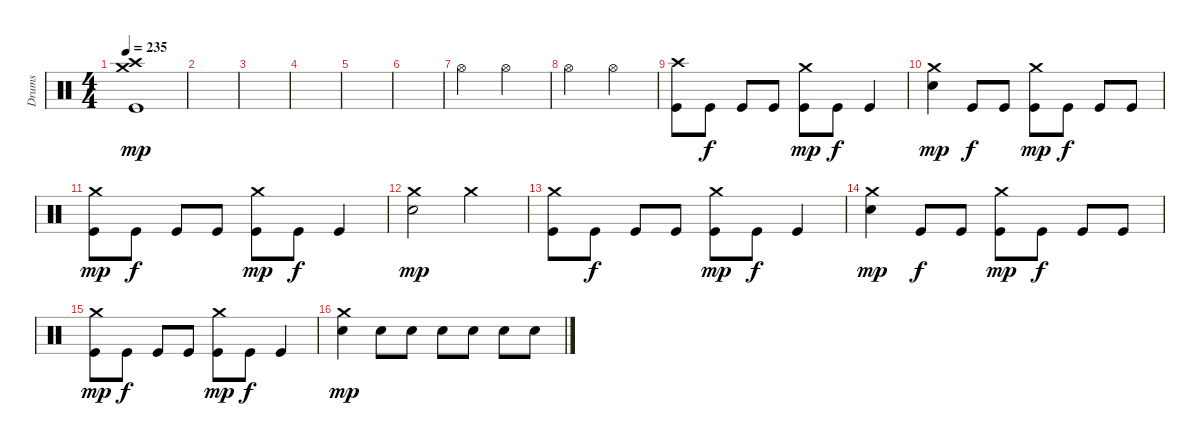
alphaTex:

\track ("Drums" "Drums") {instrument percussion}
\staff {score}
\articulation defaults
\ts (4 4)
\tempo 235
\clef neutral
\ks c
("Crash medium (hit)" "Crash high (hit)" "Kick (hit)").1{dy mp} |
|
|
|
|
|
"Hi-Hat (open)".2 "Hi-Hat (open)".2 |
"Hi-Hat (open)".2 "Hi-Hat (open)".2 |
("Crash high (hit)" "Kick (hit)").8 "Kick (hit)".8{dy f} "Kick (hit)".8 "Kick (hit)".8 ("Crash medium (hit)" "Kick (hit)").8{dy mp} "Kick (hit)".8{dy f} "Kick (hit)".4 |
("Crash medium (hit)" "Snare (hit) 2").4{dy mp} "Kick (hit)".8{dy f} "Kick (hit)".8 ("Crash medium (hit)" "Kick (hit)").8{dy mp} "Kick (hit)".8{dy f} "Kick (hit)".8 "Kick (hit)".8 |
("Crash medium (hit)" "Kick (hit)").8{dy mp} "Kick (hit)".8{dy f} "Kick (hit)".8 "Kick (hit)".8 ("Crash medium (hit)" "Kick (hit)").8{dy mp} "Kick (hit)".8{dy f} "Kick (hit)".4 |
("Crash medium (hit)" "Snare (hit) 2").2{dy mp} "Crash medium (hit)".2 |
("Crash medium (hit)" "Kick (hit)").8 "Kick (hit)".8{dy f} "Kick (hit)".8 "Kick (hit)".8 ("Crash medium (hit)" "Kick (hit)").8{dy mp} "Kick (hit)".8{dy f} "Kick (hit)".4 |
("Crash medium (hit)" "Snare (hit) 2").4{dy mp} "Kick (hit)".8{dy f} "Kick (hit)".8 ("Crash medium (hit)" "Kick (hit)").8{dy mp} "Kick (hit)".8{dy f} "Kick (hit)".8 "Kick (hit)".8 |
("Crash medium (hit)" "Kick (hit)").8{dy mp} "Kick (hit)".8{dy f} "Kick (hit)".8 "Kick (hit)".8 ("Crash medium (hit)" "Kick (hit)").8{dy mp} "Kick (hit)".8{dy f} "Kick (hit)".4 |
("Crash medium (hit)" "Snare (hit) 2").4{dy mp} "Snare (hit) 2".8 "Snare (hit) 2".8 "Snare (hit) 2".8 "Snare (hit) 2".8 "Snare (hit) 2".8 "Snare (hit) 2".8
